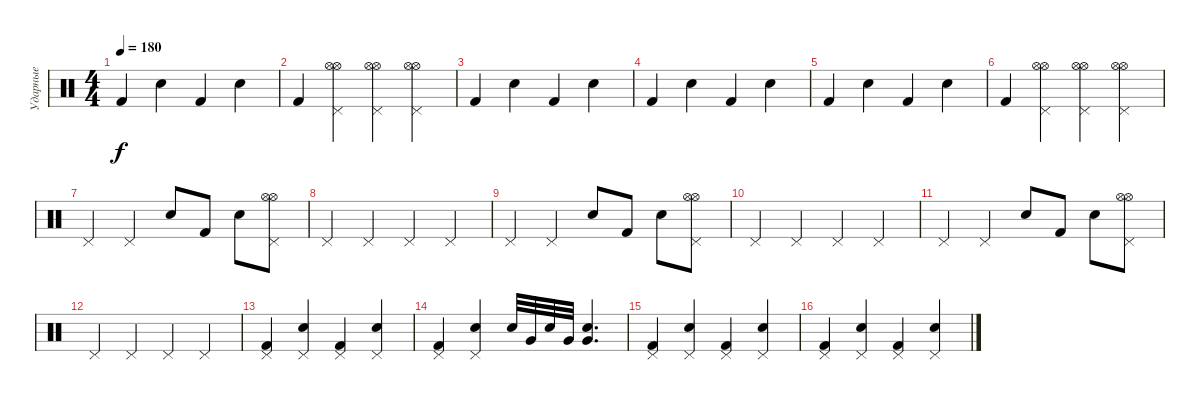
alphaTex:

\track ("Ударные" "Ударные") {instrument percussion}
\staff {score}
\articulation defaults
\ts (4 4)
\tempo 180
\clef neutral
\ks c "Kick (hit) 2".4{dy f} "Electric Snare (hit)".4 "Kick (hit) 2".4 "Electric Snare (hit)".4
|
"Kick (hit) 2".4 ("Hi-Hat (open)" "Pedal Hi-Hat (hit)" "Hi-Hat (open)").4 ("Hi-Hat (open)" "Pedal Hi-Hat (hit)" "Hi-Hat (open)").4 ("Hi-Hat (open)" "Pedal Hi-Hat (hit)" "Hi-Hat (open)").4 |
"Kick (hit) 2".4 "Electric Snare (hit)".4 "Kick (hit) 2".4 "Electric Snare (hit)".4 |
"Kick (hit) 2".4 "Electric Snare (hit)".4 "Kick (hit) 2".4 "Electric Snare (hit)".4 |
"Kick (hit) 2".4 "Electric Snare (hit)".4 "Kick (hit) 2".4 "Electric Snare (hit)".4 |
"Kick (hit) 2".4 ("Hi-Hat (open)" "Pedal Hi-Hat (hit)" "Hi-Hat (open)").4 ("Hi-Hat (open)" "Pedal Hi-Hat (hit)" "Hi-Hat (open)").4 ("Hi-Hat (open)" "Pedal Hi-Hat (hit)" "Hi-Hat (open)").4 |
"Pedal Hi-Hat (hit)".4 "Pedal Hi-Hat (hit)".4 "Electric Snare (hit)".8 "Kick (hit) 2".8 "Electric Snare (hit)".8 ("Hi-Hat (open)" "Pedal Hi-Hat (hit)" "Hi-Hat (open)").8 |
"Pedal Hi-Hat (hit)".4 "Pedal Hi-Hat (hit)".4 "Pedal Hi-Hat (hit)".4 "Pedal Hi-Hat (hit)".4 |
"Pedal Hi-Hat (hit)".4 "Pedal Hi-Hat (hit)".4 "Electric Snare (hit)".8 "Kick (hit) 2".8 "Electric Snare (hit)".8 ("Hi-Hat (open)" "Pedal Hi-Hat (hit)" "Hi-Hat (open)").8 |
"Pedal Hi-Hat (hit)".4 "Pedal Hi-Hat (hit)".4 "Pedal Hi-Hat (hit)".4 "Pedal Hi-Hat (hit)".4 |
"Pedal Hi-Hat (hit)".4 "Pedal Hi-Hat (hit)".4 "Electric Snare (hit)".8 "Kick (hit) 2".8 "Electric Snare (hit)".8 ("Hi-Hat (open)" "Pedal Hi-Hat (hit)" "Hi-Hat (open)").8 |
"Pedal Hi-Hat (hit)".4 "Pedal Hi-Hat (hit)".4 "Pedal Hi-Hat (hit)".4 "Pedal Hi-Hat (hit)".4 |
("Kick (hit) 2" "Pedal Hi-Hat (hit)").4 ("Electric Snare (hit)" "Pedal Hi-Hat (hit)").4 ("Kick (hit) 2" "Pedal Hi-Hat (hit)").4 ("Electric Snare (hit)" "Pedal Hi-Hat (hit)").4 |
("Kick (hit) 2" "Pedal Hi-Hat (hit)").4 ("Electric Snare (hit)" "Pedal Hi-Hat (hit)").4 "Electric Snare (hit)".32 "Very Low Tom (hit)".32 "Electric Snare (hit)".32 "Very Low Tom (hit)".32 ("Very Low Tom (hit)" "Electric Snare (hit)").4{d} |
("Kick (hit) 2" "Pedal Hi-Hat (hit)").4 ("Electric Snare (hit)" "Pedal Hi-Hat (hit)").4 ("Kick (hit) 2" "Pedal Hi-Hat (hit)").4 ("Electric Snare (hit)" "Pedal Hi-Hat (hit)").4 |
("Kick (hit) 2" "Pedal Hi-Hat (hit)").4 ("Electric Snare (hit)" "Pedal Hi-Hat (hit)").4 ("Kick (hit) 2" "Pedal Hi-Hat (hit)").4 ("Electric Snare (hit)" "Pedal Hi-Hat (hit)").4
